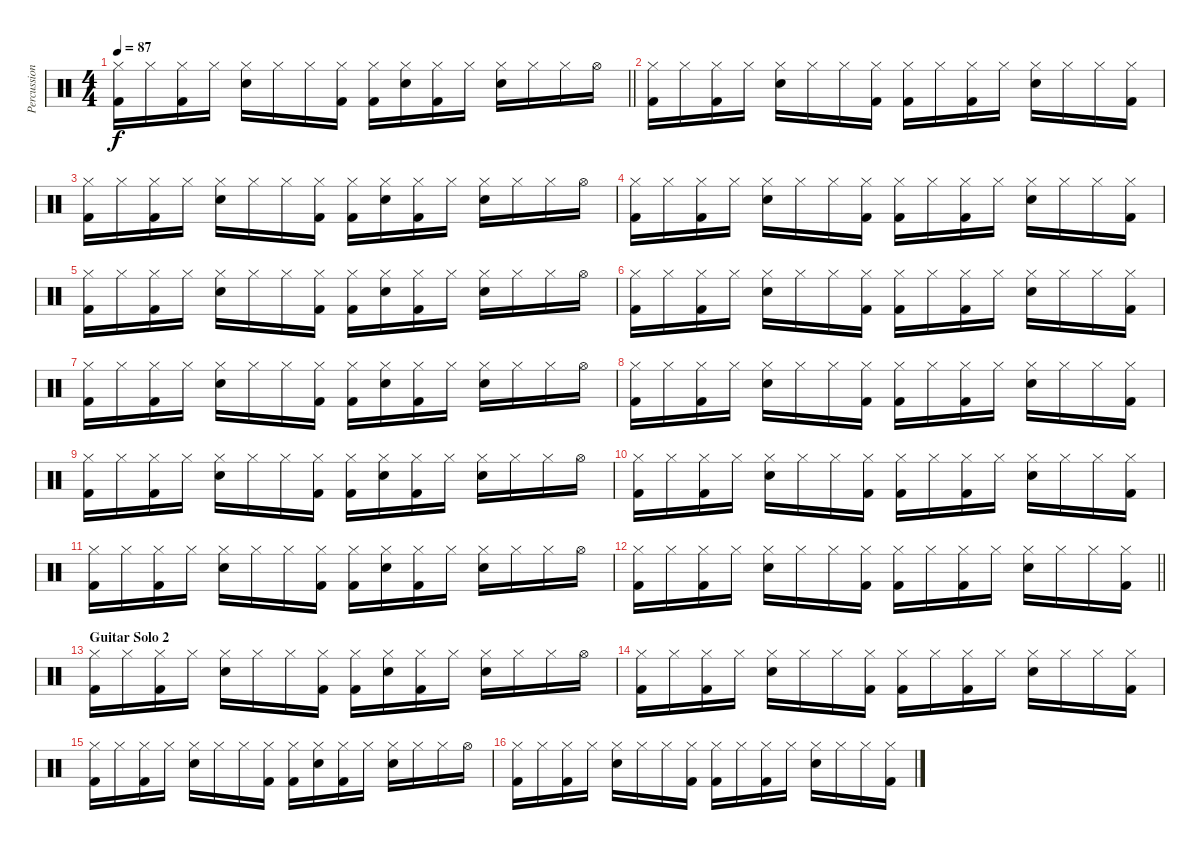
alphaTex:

\track ("Percussion" "Percussion") {instrument percussion}
\staff {score}
\articulation defaults
\ts (4 4)
\tempo 87
\clef neutral
\barLineRight lightlight
\ks c
("Hi-Hat (closed)" "Kick (hit) 2").16{dy f} "Hi-Hat (closed)".16 ("Hi-Hat (closed)" "Kick (hit) 2").16 "Hi-Hat (closed)".16 ("Hi-Hat (closed)" "Snare (hit) 2").16 "Hi-Hat (closed)".16 "Hi-Hat (closed)".16 ("Hi-Hat (closed)" "Kick (hit) 2").16 ("Hi-Hat (closed)" "Kick (hit) 2").16 ("Hi-Hat (closed)" "Snare (hit) 2").16 ("Hi-Hat (closed)" "Kick (hit) 2").16 "Hi-Hat (closed)".16 ("Hi-Hat (closed)" "Snare (hit) 2").16 "Hi-Hat (closed)".16 "Hi-Hat (closed)".16 "Hi-Hat (open)".16 |
("Hi-Hat (closed)" "Kick (hit) 2").16 "Hi-Hat (closed)".16 ("Hi-Hat (closed)" "Kick (hit) 2").16 "Hi-Hat (closed)".16 ("Hi-Hat (closed)" "Snare (hit) 2").16 "Hi-Hat (closed)".16 "Hi-Hat (closed)".16 ("Hi-Hat (closed)" "Kick (hit) 2").16 ("Hi-Hat (closed)" "Kick (hit) 2").16 "Hi-Hat (closed)".16 ("Hi-Hat (closed)" "Kick (hit) 2").16 "Hi-Hat (closed)".16 ("Hi-Hat (closed)" "Snare (hit) 2").16 "Hi-Hat (closed)".16 "Hi-Hat (closed)".16 ("Hi-Hat (closed)" "Kick (hit) 2").16 |
("Hi-Hat (closed)" "Kick (hit) 2").16 "Hi-Hat (closed)".16 ("Hi-Hat (closed)" "Kick (hit) 2").16 "Hi-Hat (closed)".16 ("Hi-Hat (closed)" "Snare (hit) 2").16 "Hi-Hat (closed)".16 "Hi-Hat (closed)".16 ("Hi-Hat (closed)" "Kick (hit) 2").16 ("Hi-Hat (closed)" "Kick (hit) 2").16 ("Hi-Hat (closed)" "Snare (hit) 2").16 ("Hi-Hat (closed)" "Kick (hit) 2").16 "Hi-Hat (closed)".16 ("Hi-Hat (closed)" "Snare (hit) 2").16 "Hi-Hat (closed)".16 "Hi-Hat (closed)".16 "Hi-Hat (open)".16 |
("Hi-Hat (closed)" "Kick (hit) 2").16 "Hi-Hat (closed)".16 ("Hi-Hat (closed)" "Kick (hit) 2").16 "Hi-Hat (closed)".16 ("Hi-Hat (closed)" "Snare (hit) 2").16 "Hi-Hat (closed)".16 "Hi-Hat (closed)".16 ("Hi-Hat (closed)" "Kick (hit) 2").16 ("Hi-Hat (closed)" "Kick (hit) 2").16 "Hi-Hat (closed)".16 ("Hi-Hat (closed)" "Kick (hit) 2").16 "Hi-Hat (closed)".16 ("Hi-Hat (closed)" "Snare (hit) 2").16 "Hi-Hat (closed)".16 "Hi-Hat (closed)".16 ("Hi-Hat (closed)" "Kick (hit) 2").16 |
("Hi-Hat (closed)" "Kick (hit) 2").16 "Hi-Hat (closed)".16 ("Hi-Hat (closed)" "Kick (hit) 2").16 "Hi-Hat (closed)".16 ("Hi-Hat (closed)" "Snare (hit) 2").16 "Hi-Hat (closed)".16 "Hi-Hat (closed)".16 ("Hi-Hat (closed)" "Kick (hit) 2").16 ("Hi-Hat (closed)" "Kick (hit) 2").16 ("Hi-Hat (closed)" "Snare (hit) 2").16 ("Hi-Hat (closed)" "Kick (hit) 2").16 "Hi-Hat (closed)".16 ("Hi-Hat (closed)" "Snare (hit) 2").16 "Hi-Hat (closed)".16 "Hi-Hat (closed)".16 "Hi-Hat (open)".16 |
("Hi-Hat (closed)" "Kick (hit) 2").16 "Hi-Hat (closed)".16 ("Hi-Hat (closed)" "Kick (hit) 2").16 "Hi-Hat (closed)".16 ("Hi-Hat (closed)" "Snare (hit) 2").16 "Hi-Hat (closed)".16 "Hi-Hat (closed)".16 ("Hi-Hat (closed)" "Kick (hit) 2").16 ("Hi-Hat (closed)" "Kick (hit) 2").16 "Hi-Hat (closed)".16 ("Hi-Hat (closed)" "Kick (hit) 2").16 "Hi-Hat (closed)".16 ("Hi-Hat (closed)" "Snare (hit) 2").16 "Hi-Hat (closed)".16 "Hi-Hat (closed)".16 ("Hi-Hat (closed)" "Kick (hit) 2").16 |
("Hi-Hat (closed)" "Kick (hit) 2").16 "Hi-Hat (closed)".16 ("Hi-Hat (closed)" "Kick (hit) 2").16 "Hi-Hat (closed)".16 ("Hi-Hat (closed)" "Snare (hit) 2").16 "Hi-Hat (closed)".16 "Hi-Hat (closed)".16 ("Hi-Hat (closed)" "Kick (hit) 2").16 ("Hi-Hat (closed)" "Kick (hit) 2").16 ("Hi-Hat (closed)" "Snare (hit) 2").16 ("Hi-Hat (closed)" "Kick (hit) 2").16 "Hi-Hat (closed)".16 ("Hi-Hat (closed)" "Snare (hit) 2").16 "Hi-Hat (closed)".16 "Hi-Hat (closed)".16 "Hi-Hat (open)".16 |
("Hi-Hat (closed)" "Kick (hit) 2").16 "Hi-Hat (closed)".16 ("Hi-Hat (closed)" "Kick (hit) 2").16 "Hi-Hat (closed)".16 ("Hi-Hat (closed)" "Snare (hit) 2").16 "Hi-Hat (closed)".16 "Hi-Hat (closed)".16 ("Hi-Hat (closed)" "Kick (hit) 2").16 ("Hi-Hat (closed)" "Kick (hit) 2").16 "Hi-Hat (closed)".16 ("Hi-Hat (closed)" "Kick (hit) 2").16 "Hi-Hat (closed)".16 ("Hi-Hat (closed)" "Snare (hit) 2").16 "Hi-Hat (closed)".16 "Hi-Hat (closed)".16 ("Hi-Hat (closed)" "Kick (hit) 2").16 |
("Hi-Hat (closed)" "Kick (hit) 2").16 "Hi-Hat (closed)".16 ("Hi-Hat (closed)" "Kick (hit) 2").16 "Hi-Hat (closed)".16 ("Hi-Hat (closed)" "Snare (hit) 2").16 "Hi-Hat (closed)".16 "Hi-Hat (closed)".16 ("Hi-Hat (closed)" "Kick (hit) 2").16 ("Hi-Hat (closed)" "Kick (hit) 2").16 ("Hi-Hat (closed)" "Snare (hit) 2").16 ("Hi-Hat (closed)" "Kick (hit) 2").16 "Hi-Hat (closed)".16 ("Hi-Hat (closed)" "Snare (hit) 2").16 "Hi-Hat (closed)".16 "Hi-Hat (closed)".16 "Hi-Hat (open)".16 |
("Hi-Hat (closed)" "Kick (hit) 2").16 "Hi-Hat (closed)".16 ("Hi-Hat (closed)" "Kick (hit) 2").16 "Hi-Hat (closed)".16 ("Hi-Hat (closed)" "Snare (hit) 2").16 "Hi-Hat (closed)".16 "Hi-Hat (closed)".16 ("Hi-Hat (closed)" "Kick (hit) 2").16 ("Hi-Hat (closed)" "Kick (hit) 2").16 "Hi-Hat (closed)".16 ("Hi-Hat (closed)" "Kick (hit) 2").16 "Hi-Hat (closed)".16 ("Hi-Hat (closed)" "Snare (hit) 2").16 "Hi-Hat (closed)".16 "Hi-Hat (closed)".16 ("Hi-Hat (closed)" "Kick (hit) 2").16 |
("Hi-Hat (closed)" "Kick (hit) 2").16 "Hi-Hat (closed)".16 ("Hi-Hat (closed)" "Kick (hit) 2").16 "Hi-Hat (closed)".16 ("Hi-Hat (closed)" "Snare (hit) 2").16 "Hi-Hat (closed)".16 "Hi-Hat (closed)".16 ("Hi-Hat (closed)" "Kick (hit) 2").16 ("Hi-Hat (closed)" "Kick (hit) 2").16 ("Hi-Hat (closed)" "Snare (hit) 2").16 ("Hi-Hat (closed)" "Kick (hit) 2").16 "Hi-Hat (closed)".16 ("Hi-Hat (closed)" "Snare (hit) 2").16 "Hi-Hat (closed)".16 "Hi-Hat (closed)".16 "Hi-Hat (open)".16 |
\barLineRight lightlight
("Hi-Hat (closed)" "Kick (hit) 2").16 "Hi-Hat (closed)".16 ("Hi-Hat (closed)" "Kick (hit) 2").16 "Hi-Hat (closed)".16 ("Hi-Hat (closed)" "Snare (hit) 2").16 "Hi-Hat (closed)".16 "Hi-Hat (closed)".16 ("Hi-Hat (closed)" "Kick (hit) 2").16 ("Hi-Hat (closed)" "Kick (hit) 2").16 "Hi-Hat (closed)".16 ("Hi-Hat (closed)" "Kick (hit) 2").16 "Hi-Hat (closed)".16 ("Hi-Hat (closed)" "Snare (hit) 2").16 "Hi-Hat (closed)".16 "Hi-Hat (closed)".16 ("Hi-Hat (closed)" "Kick (hit) 2").16 |
\section ("" "Guitar Solo 2")
("Hi-Hat (closed)" "Kick (hit) 2").16 "Hi-Hat (closed)".16 ("Hi-Hat (closed)" "Kick (hit) 2").16 "Hi-Hat (closed)".16 ("Hi-Hat (closed)" "Snare (hit) 2").16 "Hi-Hat (closed)".16 "Hi-Hat (closed)".16 ("Hi-Hat (closed)" "Kick (hit) 2").16 ("Hi-Hat (closed)" "Kick (hit) 2").16 ("Hi-Hat (closed)" "Snare (hit) 2").16 ("Hi-Hat (closed)" "Kick (hit) 2").16 "Hi-Hat (closed)".16 ("Hi-Hat (closed)" "Snare (hit) 2").16 "Hi-Hat (closed)".16 "Hi-Hat (closed)".16 "Hi-Hat (open)".16 |
("Hi-Hat (closed)" "Kick (hit) 2").16 "Hi-Hat (closed)".16 ("Hi-Hat (closed)" "Kick (hit) 2").16 "Hi-Hat (closed)".16 ("Hi-Hat (closed)" "Snare (hit) 2").16 "Hi-Hat (closed)".16 "Hi-Hat (closed)".16 ("Hi-Hat (closed)" "Kick (hit) 2").16 ("Hi-Hat (closed)" "Kick (hit) 2").16 "Hi-Hat (closed)".16 ("Hi-Hat (closed)" "Kick (hit) 2").16 "Hi-Hat (closed)".16 ("Hi-Hat (closed)" "Snare (hit) 2").16 "Hi-Hat (closed)".16 "Hi-Hat (closed)".16 ("Hi-Hat (closed)" "Kick (hit) 2").16 |
("Hi-Hat (closed)" "Kick (hit) 2").16 "Hi-Hat (closed)".16 ("Hi-Hat (closed)" "Kick (hit) 2").16 "Hi-Hat (closed)".16 ("Hi-Hat (closed)" "Snare (hit) 2").16 "Hi-Hat (closed)".16 "Hi-Hat (closed)".16 ("Hi-Hat (closed)" "Kick (hit) 2").16 ("Hi-Hat (closed)" "Kick (hit) 2").16 ("Hi-Hat (closed)" "Snare (hit) 2").16 ("Hi-Hat (closed)" "Kick (hit) 2").16 "Hi-Hat (closed)".16 ("Hi-Hat (closed)" "Snare (hit) 2").16 "Hi-Hat (closed)".16 "Hi-Hat (closed)".16 "Hi-Hat (open)".16 |
("Hi-Hat (closed)" "Kick (hit) 2").16 "Hi-Hat (closed)".16 ("Hi-Hat (closed)" "Kick (hit) 2").16 "Hi-Hat (closed)".16 ("Hi-Hat (closed)" "Snare (hit) 2").16 "Hi-Hat (closed)".16 "Hi-Hat (closed)".16 ("Hi-Hat (closed)" "Kick (hit) 2").16 ("Hi-Hat (closed)" "Kick (hit) 2").16 "Hi-Hat (closed)".16 ("Hi-Hat (closed)" "Kick (hit) 2").16 "Hi-Hat (closed)".16 ("Hi-Hat (closed)" "Snare (hit) 2").16 "Hi-Hat (closed)".16 "Hi-Hat (closed)".16 ("Hi-Hat (closed)" "Kick (hit) 2").16
